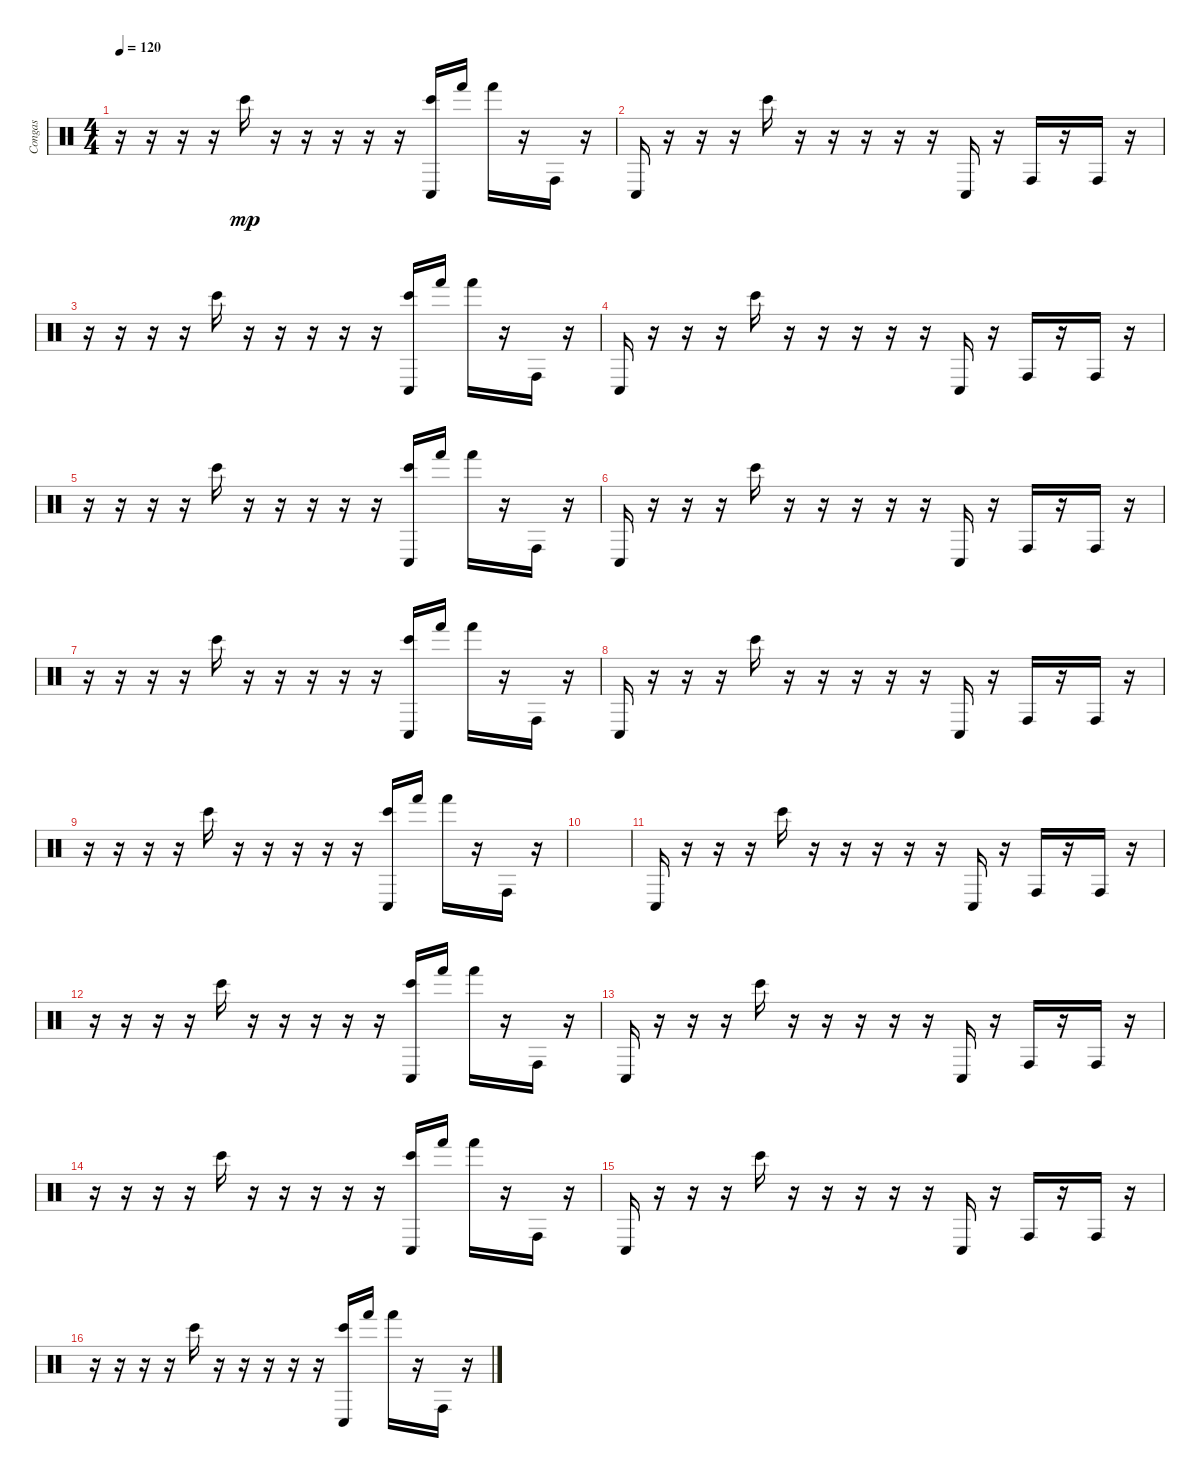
\track ("Congas" "Congas") {instrument percussion}
\staff {score}
\articulation defaults
\ts (4 4)
\tempo 120
\clef neutral
\ks c
r.16{dy mp} r.16 r.16 r.16 "Bongo High (hit)".16 r.16 r.16 r.16 r.16 r.16 ("Bongo High (hit)" "Conga low (hit)").16 "Hand (hit)".16 "Hand (hit)".16 r.16 "Conga high (hit)".16 r.16 |
"Conga low (hit)".16 r.16 r.16 r.16 "Bongo High (hit)".16 r.16 r.16 r.16 r.16 r.16 "Conga low (hit)".16 r.16 "Conga high (hit)".16 r.16 "Conga high (hit)".16 r.16 |
r.16 r.16 r.16 r.16 "Bongo High (hit)".16 r.16 r.16 r.16 r.16 r.16 ("Bongo High (hit)" "Conga low (hit)").16 "Hand (hit)".16 "Hand (hit)".16 r.16 "Conga high (hit)".16 r.16 |
"Conga low (hit)".16 r.16 r.16 r.16 "Bongo High (hit)".16 r.16 r.16 r.16 r.16 r.16 "Conga low (hit)".16 r.16 "Conga high (hit)".16 r.16 "Conga high (hit)".16 r.16 |
r.16 r.16 r.16 r.16 "Bongo High (hit)".16 r.16 r.16 r.16 r.16 r.16 ("Bongo High (hit)" "Conga low (hit)").16 "Hand (hit)".16 "Hand (hit)".16 r.16 "Conga high (hit)".16 r.16 |
"Conga low (hit)".16 r.16 r.16 r.16 "Bongo High (hit)".16 r.16 r.16 r.16 r.16 r.16 "Conga low (hit)".16 r.16 "Conga high (hit)".16 r.16 "Conga high (hit)".16 r.16 |
r.16 r.16 r.16 r.16 "Bongo High (hit)".16 r.16 r.16 r.16 r.16 r.16 ("Bongo High (hit)" "Conga low (hit)").16 "Hand (hit)".16 "Hand (hit)".16 r.16 "Conga high (hit)".16 r.16 |
"Conga low (hit)".16 r.16 r.16 r.16 "Bongo High (hit)".16 r.16 r.16 r.16 r.16 r.16 "Conga low (hit)".16 r.16 "Conga high (hit)".16 r.16 "Conga high (hit)".16 r.16 |
r.16 r.16 r.16 r.16 "Bongo High (hit)".16 r.16 r.16 r.16 r.16 r.16 ("Bongo High (hit)" "Conga low (hit)").16 "Hand (hit)".16 "Hand (hit)".16 r.16 "Conga high (hit)".16 r.16 |
|
"Conga low (hit)".16 r.16 r.16 r.16 "Bongo High (hit)".16 r.16 r.16 r.16 r.16 r.16 "Conga low (hit)".16 r.16 "Conga high (hit)".16 r.16 "Conga high (hit)".16 r.16 |
r.16 r.16 r.16 r.16 "Bongo High (hit)".16 r.16 r.16 r.16 r.16 r.16 ("Bongo High (hit)" "Conga low (hit)").16 "Hand (hit)".16 "Hand (hit)".16 r.16 "Conga high (hit)".16 r.16 |
"Conga low (hit)".16 r.16 r.16 r.16 "Bongo High (hit)".16 r.16 r.16 r.16 r.16 r.16 "Conga low (hit)".16 r.16 "Conga high (hit)".16 r.16 "Conga high (hit)".16 r.16 |
r.16 r.16 r.16 r.16 "Bongo High (hit)".16 r.16 r.16 r.16 r.16 r.16 ("Bongo High (hit)" "Conga low (hit)").16 "Hand (hit)".16 "Hand (hit)".16 r.16 "Conga high (hit)".16 r.16 |
"Conga low (hit)".16 r.16 r.16 r.16 "Bongo High (hit)".16 r.16 r.16 r.16 r.16 r.16 "Conga low (hit)".16 r.16 "Conga high (hit)".16 r.16 "Conga high (hit)".16 r.16 |
r.16 r.16 r.16 r.16 "Bongo High (hit)".16 r.16 r.16 r.16 r.16 r.16 ("Bongo High (hit)" "Conga low (hit)").16 "Hand (hit)".16 "Hand (hit)".16 r.16 "Conga high (hit)".16 r.16
